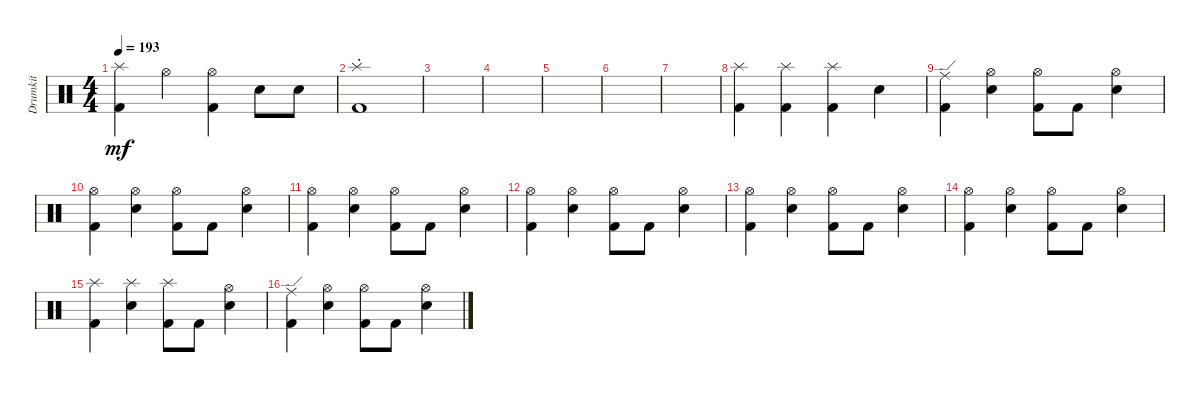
\track ("Drumkit" "Drumkit") {instrument percussion}
\staff {score}
\articulation defaults
\ts (4 4)
\tempo 193
\clef neutral
\ks c
("Splash (hit)" "Kick (hit) 2").4{dy mf} "Hi-Hat (open)".4 ("Hi-Hat (open)" "Kick (hit) 2").4 "Snare (hit) 2".8 "Snare (hit) 2".8 |
("Splash (choke)" "Kick (hit) 2").1 |
|
|
|
|
|
("Kick (hit) 2" "Splash (hit)").4 ("Kick (hit) 2" "Splash (hit)").4 ("Kick (hit) 2" "Splash (hit)").4 "Snare (hit) 2".4 |
("Kick (hit) 2" "Ride (edge)").4 ("Snare (hit) 2" "Hi-Hat (open)").4 ("Kick (hit) 2" "Hi-Hat (open)").8 "Kick (hit) 2".8 ("Snare (hit) 2" "Hi-Hat (open)").4 |
("Kick (hit) 2" "Hi-Hat (open)").4 ("Snare (hit) 2" "Hi-Hat (open)").4 ("Kick (hit) 2" "Hi-Hat (open)").8 "Kick (hit) 2".8 ("Snare (hit) 2" "Hi-Hat (open)").4 |
("Kick (hit) 2" "Hi-Hat (open)").4 ("Snare (hit) 2" "Hi-Hat (open)").4 ("Kick (hit) 2" "Hi-Hat (open)").8 "Kick (hit) 2".8 ("Snare (hit) 2" "Hi-Hat (open)").4 |
("Kick (hit) 2" "Hi-Hat (open)").4 ("Snare (hit) 2" "Hi-Hat (open)").4 ("Kick (hit) 2" "Hi-Hat (open)").8 "Kick (hit) 2".8 ("Snare (hit) 2" "Hi-Hat (open)").4 |
("Kick (hit) 2" "Hi-Hat (open)").4 ("Snare (hit) 2" "Hi-Hat (open)").4 ("Kick (hit) 2" "Hi-Hat (open)").8 "Kick (hit) 2".8 ("Snare (hit) 2" "Hi-Hat (open)").4 |
("Kick (hit) 2" "Hi-Hat (open)").4 ("Snare (hit) 2" "Hi-Hat (open)").4 ("Kick (hit) 2" "Hi-Hat (open)").8 "Kick (hit) 2".8 ("Snare (hit) 2" "Hi-Hat (open)").4 |
("Kick (hit) 2" "Splash (hit)").4 ("Snare (hit) 2" "Splash (hit)").4 ("Kick (hit) 2" "Splash (hit)").8 "Kick (hit) 2".8 ("Snare (hit) 2" "Hi-Hat (open)").4 |
("Kick (hit) 2" "Ride (edge)").4 ("Snare (hit) 2" "Hi-Hat (open)").4 ("Kick (hit) 2" "Hi-Hat (open)").8 "Kick (hit) 2".8 ("Snare (hit) 2" "Hi-Hat (open)").4
